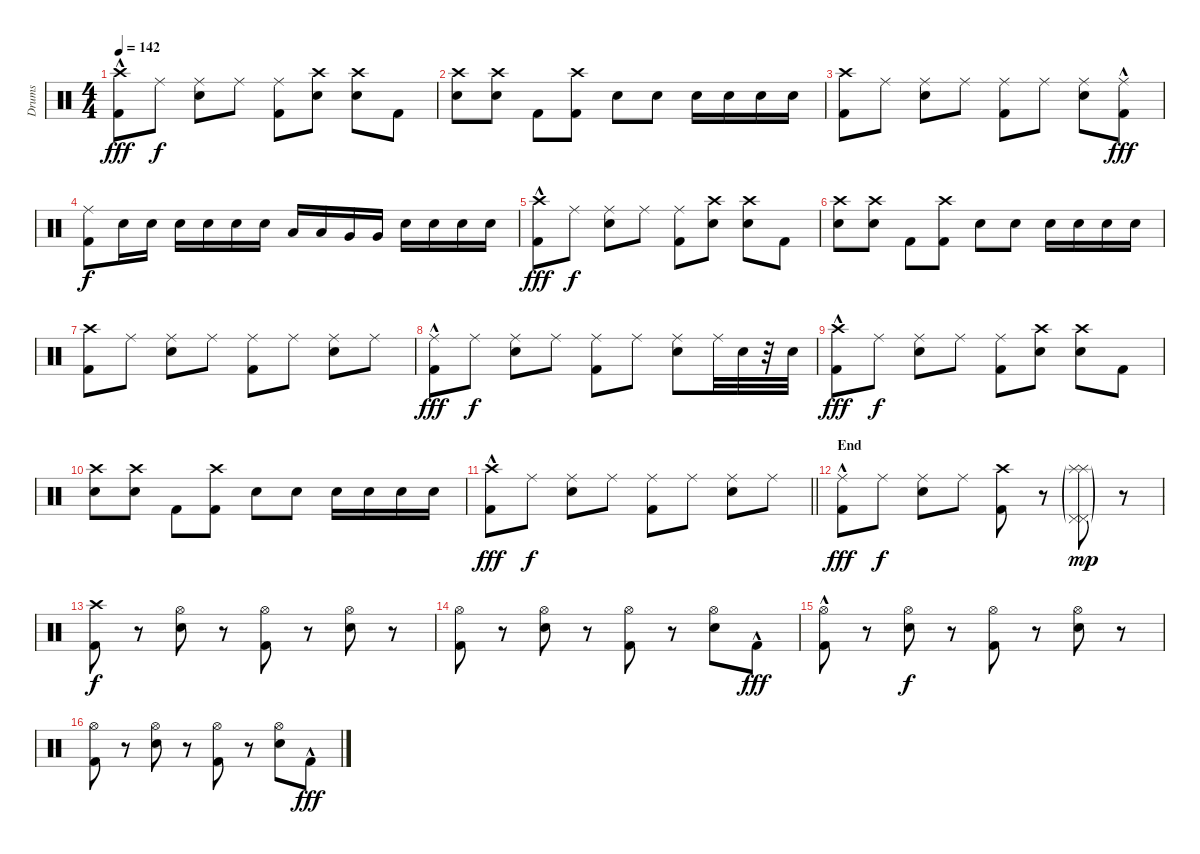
\track ("Drums" "Drums") {instrument percussion}
\staff {score}
\articulation defaults
\ts (4 4)
\tempo 142
\clef neutral
\ks c
("Crash high (hit)" "Kick (hit) 2"{hac}).8{dy fff} "Ride (middle)".8{dy f} ("Ride (middle)" "Electric Snare (hit)").8 "Ride (middle)".8 ("Ride (middle)" "Kick (hit) 2").8 ("Crash high (hit)" "Electric Snare (hit)").8 ("Crash high (hit)" "Electric Snare (hit)").8 "Kick (hit) 2".8 |
("Crash high (hit)" "Electric Snare (hit)").8 ("Crash high (hit)" "Electric Snare (hit)").8 "Kick (hit) 2".8 ("Crash high (hit)" "Kick (hit) 2").8 "Electric Snare (hit)".8 "Electric Snare (hit)".8 "Electric Snare (hit)".16 "Electric Snare (hit)".16 "Electric Snare (hit)".16 "Electric Snare (hit)".16 |
("Crash high (hit)" "Kick (hit) 2").8 "Ride (middle)".8 ("Ride (middle)" "Electric Snare (hit)").8 "Ride (middle)".8 ("Ride (middle)" "Kick (hit) 2").8 "Ride (middle)".8 ("Ride (middle)" "Electric Snare (hit)").8 ("Ride (middle)" "Kick (hit) 2"{hac}).8{dy fff} |
("Ride (middle)" "Kick (hit) 2").8{dy f} "Electric Snare (hit)".16 "Electric Snare (hit)".16 "Snare (hit) 2".16 "Snare (hit) 2".16 "Electric Snare (hit)".16 "Electric Snare (hit)".16 "Low Tom (hit)".16 "Low Tom (hit)".16 "Very Low Tom (hit)".16 "Very Low Tom (hit)".16 "Electric Snare (hit)".16 "Electric Snare (hit)".16 "Snare (hit) 2".16 "Snare (hit) 2".16 |
("Crash high (hit)" "Kick (hit) 2"{hac}).8{dy fff} "Ride (middle)".8{dy f} ("Ride (middle)" "Electric Snare (hit)").8 "Ride (middle)".8 ("Ride (middle)" "Kick (hit) 2").8 ("Crash high (hit)" "Electric Snare (hit)").8 ("Crash high (hit)" "Electric Snare (hit)").8 "Kick (hit) 2".8 |
("Crash high (hit)" "Electric Snare (hit)").8 ("Crash high (hit)" "Electric Snare (hit)").8 "Kick (hit) 2".8 ("Crash high (hit)" "Kick (hit) 2").8 "Electric Snare (hit)".8 "Electric Snare (hit)".8 "Electric Snare (hit)".16 "Electric Snare (hit)".16 "Electric Snare (hit)".16 "Electric Snare (hit)".16 |
("Crash high (hit)" "Kick (hit) 2").8 "Ride (middle)".8 ("Ride (middle)" "Electric Snare (hit)").8 "Ride (middle)".8 ("Ride (middle)" "Kick (hit) 2").8 "Ride (middle)".8 ("Ride (middle)" "Electric Snare (hit)").8 "Ride (middle)".8 |
("Ride (middle)" "Kick (hit) 2"{hac}).8{dy fff} "Ride (middle)".8{dy f} ("Ride (middle)" "Electric Snare (hit)").8 "Ride (middle)".8 ("Ride (middle)" "Kick (hit) 2").8 "Ride (middle)".8 ("Ride (middle)" "Electric Snare (hit)").8 "Ride (middle)".32 "Electric Snare (hit)".32 r.32 "Electric Snare (hit)".32 |
("Crash high (hit)" "Kick (hit) 2"{hac}).8{dy fff} "Ride (middle)".8{dy f} ("Ride (middle)" "Electric Snare (hit)").8 "Ride (middle)".8 ("Ride (middle)" "Kick (hit) 2").8 ("Crash high (hit)" "Electric Snare (hit)").8 ("Crash high (hit)" "Electric Snare (hit)").8 "Kick (hit) 2".8 |
("Crash high (hit)" "Electric Snare (hit)").8 ("Crash high (hit)" "Electric Snare (hit)").8 "Kick (hit) 2".8 ("Crash high (hit)" "Kick (hit) 2").8 "Electric Snare (hit)".8 "Electric Snare (hit)".8 "Electric Snare (hit)".16 "Electric Snare (hit)".16 "Electric Snare (hit)".16 "Electric Snare (hit)".16 |
\barLineRight lightlight
("Crash high (hit)" "Kick (hit) 2"{hac}).8{dy fff} "Ride (middle)".8{dy f} ("Ride (middle)" "Electric Snare (hit)").8 "Ride (middle)".8 ("Ride (middle)" "Kick (hit) 2").8 "Ride (middle)".8 ("Ride (middle)" "Electric Snare (hit)").8 "Ride (middle)".8 |
\section ("" "End")
("Ride (middle)" "Kick (hit) 2"{hac}).8{dy fff} "Ride (middle)".8{dy f} ("Ride (middle)" "Electric Snare (hit)").8 "Ride (middle)".8 ("Crash high (hit)" "Kick (hit) 2").8 r.8 ("Splash (hit)"{g} "Pedal Hi-Hat (hit)"{g} "Pedal Hi-Hat (hit)"{g} "Splash (hit)"{g}).8{dy mp} r.8 |
("Crash high (hit)" "Kick (hit) 2").8{dy f} r.8 ("Hi-Hat (open)" "Electric Snare (hit)").8 r.8 ("Hi-Hat (open)" "Kick (hit) 2").8 r.8 ("Hi-Hat (open)" "Electric Snare (hit)").8 r.8 |
("Hi-Hat (open)" "Kick (hit) 2").8 r.8 ("Hi-Hat (open)" "Electric Snare (hit)").8 r.8 ("Hi-Hat (open)" "Kick (hit) 2").8 r.8 ("Hi-Hat (open)" "Electric Snare (hit)").8 "Kick (hit) 2"{hac}.8{dy fff} |
("Hi-Hat (open)" "Kick (hit) 2"{hac}).8 r.8 ("Hi-Hat (open)" "Electric Snare (hit)").8{dy f} r.8 ("Hi-Hat (open)" "Kick (hit) 2").8 r.8 ("Hi-Hat (open)" "Electric Snare (hit)").8 r.8 |
("Hi-Hat (open)" "Kick (hit) 2").8 r.8 ("Hi-Hat (open)" "Electric Snare (hit)").8 r.8 ("Hi-Hat (open)" "Kick (hit) 2").8 r.8 ("Hi-Hat (open)" "Electric Snare (hit)").8 "Kick (hit) 2"{hac}.8{dy fff}
